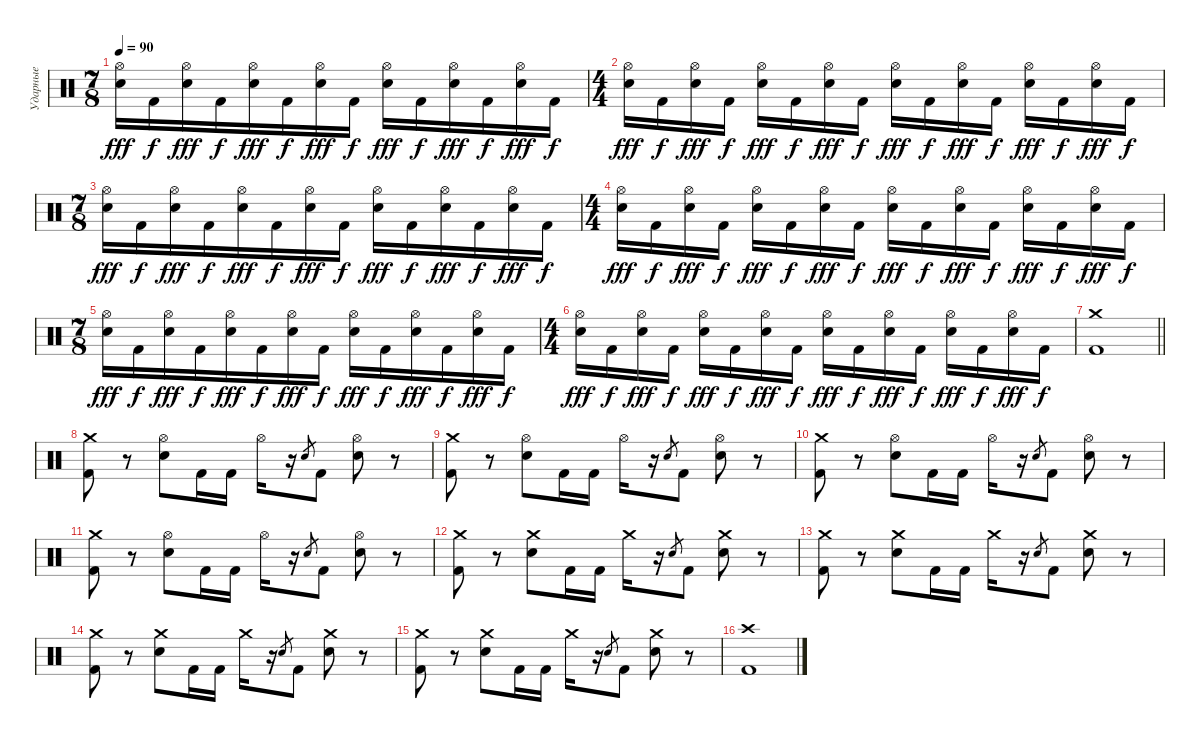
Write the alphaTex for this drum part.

\track ("Ударные" "Ударные") {instrument percussion}
\staff {score}
\articulation defaults
\ts (7 8)
\tempo 90
\clef neutral
\ks c
("Hi-Hat (open)" "Electric Snare (hit)").16{dy fff} "Kick (hit) 2".16{dy f} ("Hi-Hat (open)" "Electric Snare (hit)").16{dy fff} "Kick (hit) 2".16{dy f} ("Hi-Hat (open)" "Electric Snare (hit)").16{dy fff} "Kick (hit) 2".16{dy f} ("Hi-Hat (open)" "Electric Snare (hit)").16{dy fff} "Kick (hit) 2".16{dy f} ("Hi-Hat (open)" "Electric Snare (hit)").16{dy fff} "Kick (hit) 2".16{dy f} ("Hi-Hat (open)" "Electric Snare (hit)").16{dy fff} "Kick (hit) 2".16{dy f} ("Hi-Hat (open)" "Electric Snare (hit)").16{dy fff} "Kick (hit) 2".16{dy f} |
\ts (4 4)
("Hi-Hat (open)" "Electric Snare (hit)").16{dy fff} "Kick (hit) 2".16{dy f} ("Hi-Hat (open)" "Electric Snare (hit)").16{dy fff} "Kick (hit) 2".16{dy f} ("Hi-Hat (open)" "Electric Snare (hit)").16{dy fff} "Kick (hit) 2".16{dy f} ("Hi-Hat (open)" "Electric Snare (hit)").16{dy fff} "Kick (hit) 2".16{dy f} ("Hi-Hat (open)" "Electric Snare (hit)").16{dy fff} "Kick (hit) 2".16{dy f} ("Hi-Hat (open)" "Electric Snare (hit)").16{dy fff} "Kick (hit) 2".16{dy f} ("Hi-Hat (open)" "Electric Snare (hit)").16{dy fff} "Kick (hit) 2".16{dy f} ("Hi-Hat (open)" "Electric Snare (hit)").16{dy fff} "Kick (hit) 2".16{dy f} |
\ts (7 8)
("Hi-Hat (open)" "Electric Snare (hit)").16{dy fff} "Kick (hit) 2".16{dy f} ("Hi-Hat (open)" "Electric Snare (hit)").16{dy fff} "Kick (hit) 2".16{dy f} ("Hi-Hat (open)" "Electric Snare (hit)").16{dy fff} "Kick (hit) 2".16{dy f} ("Hi-Hat (open)" "Electric Snare (hit)").16{dy fff} "Kick (hit) 2".16{dy f} ("Hi-Hat (open)" "Electric Snare (hit)").16{dy fff} "Kick (hit) 2".16{dy f} ("Hi-Hat (open)" "Electric Snare (hit)").16{dy fff} "Kick (hit) 2".16{dy f} ("Hi-Hat (open)" "Electric Snare (hit)").16{dy fff} "Kick (hit) 2".16{dy f} |
\ts (4 4)
("Hi-Hat (open)" "Electric Snare (hit)").16{dy fff} "Kick (hit) 2".16{dy f} ("Hi-Hat (open)" "Electric Snare (hit)").16{dy fff} "Kick (hit) 2".16{dy f} ("Hi-Hat (open)" "Electric Snare (hit)").16{dy fff} "Kick (hit) 2".16{dy f} ("Hi-Hat (open)" "Electric Snare (hit)").16{dy fff} "Kick (hit) 2".16{dy f} ("Hi-Hat (open)" "Electric Snare (hit)").16{dy fff} "Kick (hit) 2".16{dy f} ("Hi-Hat (open)" "Electric Snare (hit)").16{dy fff} "Kick (hit) 2".16{dy f} ("Hi-Hat (open)" "Electric Snare (hit)").16{dy fff} "Kick (hit) 2".16{dy f} ("Hi-Hat (open)" "Electric Snare (hit)").16{dy fff} "Kick (hit) 2".16{dy f} |
\ts (7 8)
("Hi-Hat (open)" "Electric Snare (hit)").16{dy fff} "Kick (hit) 2".16{dy f} ("Hi-Hat (open)" "Electric Snare (hit)").16{dy fff} "Kick (hit) 2".16{dy f} ("Hi-Hat (open)" "Electric Snare (hit)").16{dy fff} "Kick (hit) 2".16{dy f} ("Hi-Hat (open)" "Electric Snare (hit)").16{dy fff} "Kick (hit) 2".16{dy f} ("Hi-Hat (open)" "Electric Snare (hit)").16{dy fff} "Kick (hit) 2".16{dy f} ("Hi-Hat (open)" "Electric Snare (hit)").16{dy fff} "Kick (hit) 2".16{dy f} ("Hi-Hat (open)" "Electric Snare (hit)").16{dy fff} "Kick (hit) 2".16{dy f} |
\ts (4 4)
("Hi-Hat (open)" "Electric Snare (hit)").16{dy fff} "Kick (hit) 2".16{dy f} ("Hi-Hat (open)" "Electric Snare (hit)").16{dy fff} "Kick (hit) 2".16{dy f} ("Hi-Hat (open)" "Electric Snare (hit)").16{dy fff} "Kick (hit) 2".16{dy f} ("Hi-Hat (open)" "Electric Snare (hit)").16{dy fff} "Kick (hit) 2".16{dy f} ("Hi-Hat (open)" "Electric Snare (hit)").16{dy fff} "Kick (hit) 2".16{dy f} ("Hi-Hat (open)" "Electric Snare (hit)").16{dy fff} "Kick (hit) 2".16{dy f} ("Hi-Hat (open)" "Electric Snare (hit)").16{dy fff} "Kick (hit) 2".16{dy f} ("Hi-Hat (open)" "Electric Snare (hit)").16{dy fff} "Kick (hit) 2".16{dy f} |
\barLineRight lightlight
("Crash medium (hit)" "Kick (hit) 2").1 |
("Crash medium (hit)" "Kick (hit) 2").8 r.8 ("Hi-Hat (open)" "Electric Snare (hit)").8 "Kick (hit) 2".16 "Kick (hit) 2".16 "Hi-Hat (open)".16 r.16 "Electric Snare (hit)".8{gr} "Kick (hit) 2".8 ("Hi-Hat (open)" "Electric Snare (hit)").8 r.8 |
("Crash medium (hit)" "Kick (hit) 2").8 r.8 ("Hi-Hat (open)" "Electric Snare (hit)").8 "Kick (hit) 2".16 "Kick (hit) 2".16 "Hi-Hat (open)".16 r.16 "Electric Snare (hit)".8{gr} "Kick (hit) 2".8 ("Hi-Hat (open)" "Electric Snare (hit)").8 r.8 |
("Crash medium (hit)" "Kick (hit) 2").8 r.8 ("Hi-Hat (open)" "Electric Snare (hit)").8 "Kick (hit) 2".16 "Kick (hit) 2".16 "Hi-Hat (open)".16 r.16 "Electric Snare (hit)".8{gr} "Kick (hit) 2".8 ("Hi-Hat (open)" "Electric Snare (hit)").8 r.8 |
("Crash medium (hit)" "Kick (hit) 2").8 r.8 ("Hi-Hat (open)" "Electric Snare (hit)").8 "Kick (hit) 2".16 "Kick (hit) 2".16 "Hi-Hat (open)".16 r.16 "Electric Snare (hit)".8{gr} "Kick (hit) 2".8 ("Hi-Hat (open)" "Electric Snare (hit)").8 r.8 |
("Crash medium (hit)" "Kick (hit) 2").8 r.8 ("Crash medium (hit)" "Electric Snare (hit)").8 "Kick (hit) 2".16 "Kick (hit) 2".16 "Crash medium (hit)".16 r.16 "Electric Snare (hit)".8{gr} "Kick (hit) 2".8 ("Crash medium (hit)" "Electric Snare (hit)").8 r.8 |
("Crash medium (hit)" "Kick (hit) 2").8 r.8 ("Crash medium (hit)" "Electric Snare (hit)").8 "Kick (hit) 2".16 "Kick (hit) 2".16 "Crash medium (hit)".16 r.16 "Electric Snare (hit)".8{gr} "Kick (hit) 2".8 ("Crash medium (hit)" "Electric Snare (hit)").8 r.8 |
("Crash medium (hit)" "Kick (hit) 2").8 r.8 ("Crash medium (hit)" "Electric Snare (hit)").8 "Kick (hit) 2".16 "Kick (hit) 2".16 "Crash medium (hit)".16 r.16 "Electric Snare (hit)".8{gr} "Kick (hit) 2".8 ("Crash medium (hit)" "Electric Snare (hit)").8 r.8 |
("Crash medium (hit)" "Kick (hit) 2").8 r.8 ("Crash medium (hit)" "Electric Snare (hit)").8 "Kick (hit) 2".16 "Kick (hit) 2".16 "Crash medium (hit)".16 r.16 "Electric Snare (hit)".8{gr} "Kick (hit) 2".8 ("Crash medium (hit)" "Electric Snare (hit)").8 r.8 |
("Crash high (hit)" "Kick (hit) 2").1
